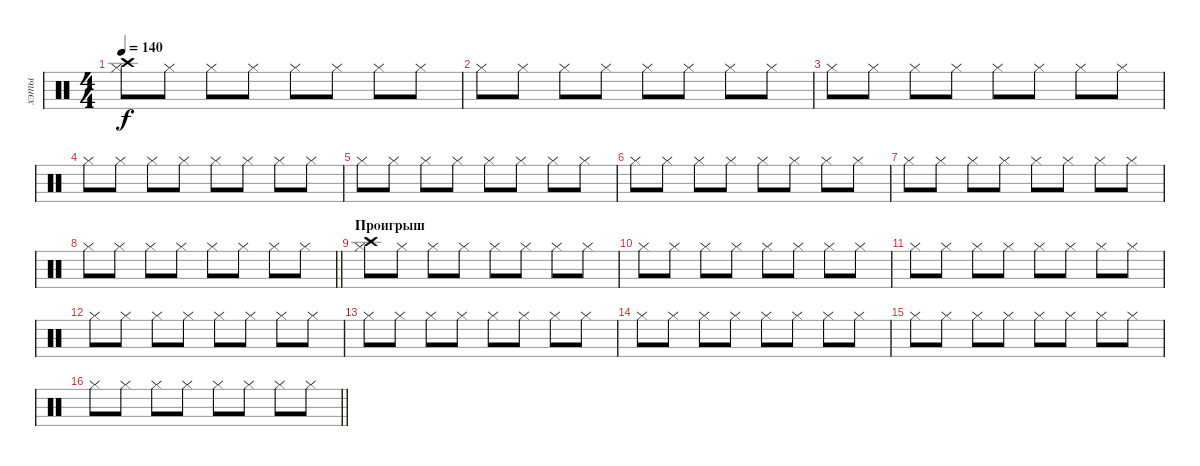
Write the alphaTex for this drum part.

\track ("хэты" "хэты") {instrument percussion}
\staff {score}
\articulation defaults
\ts (4 4)
\tempo 140
\clef neutral
\ks c
("Hi-Hat (closed)" "Crash high (hit)").8{dy f} "Hi-Hat (closed)".8 "Hi-Hat (closed)".8 "Hi-Hat (closed)".8 "Hi-Hat (closed)".8 "Hi-Hat (closed)".8 "Hi-Hat (closed)".8 "Hi-Hat (closed)".8 |
"Hi-Hat (closed)".8 "Hi-Hat (closed)".8 "Hi-Hat (closed)".8 "Hi-Hat (closed)".8 "Hi-Hat (closed)".8 "Hi-Hat (closed)".8 "Hi-Hat (closed)".8 "Hi-Hat (closed)".8 |
"Hi-Hat (closed)".8 "Hi-Hat (closed)".8 "Hi-Hat (closed)".8 "Hi-Hat (closed)".8 "Hi-Hat (closed)".8 "Hi-Hat (closed)".8 "Hi-Hat (closed)".8 "Hi-Hat (closed)".8 |
"Hi-Hat (closed)".8 "Hi-Hat (closed)".8 "Hi-Hat (closed)".8 "Hi-Hat (closed)".8 "Hi-Hat (closed)".8 "Hi-Hat (closed)".8 "Hi-Hat (closed)".8 "Hi-Hat (closed)".8 |
"Hi-Hat (closed)".8 "Hi-Hat (closed)".8 "Hi-Hat (closed)".8 "Hi-Hat (closed)".8 "Hi-Hat (closed)".8 "Hi-Hat (closed)".8 "Hi-Hat (closed)".8 "Hi-Hat (closed)".8 |
"Hi-Hat (closed)".8 "Hi-Hat (closed)".8 "Hi-Hat (closed)".8 "Hi-Hat (closed)".8 "Hi-Hat (closed)".8 "Hi-Hat (closed)".8 "Hi-Hat (closed)".8 "Hi-Hat (closed)".8 |
"Hi-Hat (closed)".8 "Hi-Hat (closed)".8 "Hi-Hat (closed)".8 "Hi-Hat (closed)".8 "Hi-Hat (closed)".8 "Hi-Hat (closed)".8 "Hi-Hat (closed)".8 "Hi-Hat (closed)".8 |
\barLineRight lightlight "Hi-Hat (closed)".8 "Hi-Hat (closed)".8 "Hi-Hat (closed)".8 "Hi-Hat (closed)".8 "Hi-Hat (closed)".8 "Hi-Hat (closed)".8 "Hi-Hat (closed)".8 "Hi-Hat (closed)".8
|
\section ("" "Проигрыш")
("Hi-Hat (closed)" "Crash high (hit)").8 "Hi-Hat (closed)".8 "Hi-Hat (closed)".8 "Hi-Hat (closed)".8 "Hi-Hat (closed)".8 "Hi-Hat (closed)".8 "Hi-Hat (closed)".8 "Hi-Hat (closed)".8 |
"Hi-Hat (closed)".8 "Hi-Hat (closed)".8 "Hi-Hat (closed)".8 "Hi-Hat (closed)".8 "Hi-Hat (closed)".8 "Hi-Hat (closed)".8 "Hi-Hat (closed)".8 "Hi-Hat (closed)".8 |
"Hi-Hat (closed)".8 "Hi-Hat (closed)".8 "Hi-Hat (closed)".8 "Hi-Hat (closed)".8 "Hi-Hat (closed)".8 "Hi-Hat (closed)".8 "Hi-Hat (closed)".8 "Hi-Hat (closed)".8 |
"Hi-Hat (closed)".8 "Hi-Hat (closed)".8 "Hi-Hat (closed)".8 "Hi-Hat (closed)".8 "Hi-Hat (closed)".8 "Hi-Hat (closed)".8 "Hi-Hat (closed)".8 "Hi-Hat (closed)".8 |
"Hi-Hat (closed)".8 "Hi-Hat (closed)".8 "Hi-Hat (closed)".8 "Hi-Hat (closed)".8 "Hi-Hat (closed)".8 "Hi-Hat (closed)".8 "Hi-Hat (closed)".8 "Hi-Hat (closed)".8 |
"Hi-Hat (closed)".8 "Hi-Hat (closed)".8 "Hi-Hat (closed)".8 "Hi-Hat (closed)".8 "Hi-Hat (closed)".8 "Hi-Hat (closed)".8 "Hi-Hat (closed)".8 "Hi-Hat (closed)".8 |
"Hi-Hat (closed)".8 "Hi-Hat (closed)".8 "Hi-Hat (closed)".8 "Hi-Hat (closed)".8 "Hi-Hat (closed)".8 "Hi-Hat (closed)".8 "Hi-Hat (closed)".8 "Hi-Hat (closed)".8 |
\barLineRight lightlight "Hi-Hat (closed)".8 "Hi-Hat (closed)".8 "Hi-Hat (closed)".8 "Hi-Hat (closed)".8 "Hi-Hat (closed)".8 "Hi-Hat (closed)".8 "Hi-Hat (closed)".8 "Hi-Hat (closed)".8
